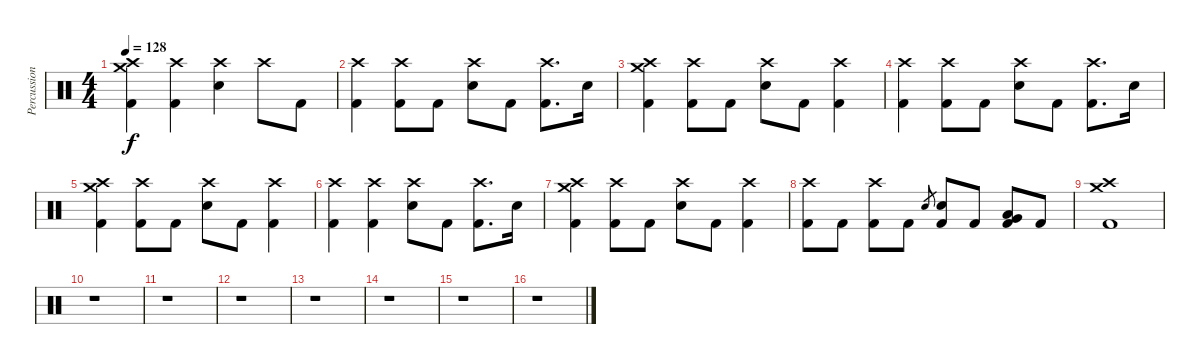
\track ("Percussion" "Percussion") {instrument percussion}
\staff {score}
\articulation defaults
\ts (4 4)
\tempo 128
\clef neutral
\ks c
("Crash high (hit)" "Crash medium (hit)" "Kick (hit) 2").4{dy f} ("Crash high (hit)" "Kick (hit) 2").4 ("Crash high (hit)" "Electric Snare (hit)").4 "Crash high (hit)".8 "Kick (hit) 2".8 |
("Crash high (hit)" "Kick (hit) 2").4 ("Crash high (hit)" "Kick (hit) 2").8 "Kick (hit) 2".8 ("Crash high (hit)" "Electric Snare (hit)").8 "Kick (hit) 2".8 ("Crash high (hit)" "Kick (hit) 2").8{d} "Electric Snare (hit)".16 |
("Crash high (hit)" "Crash medium (hit)" "Kick (hit) 2").4 ("Crash high (hit)" "Kick (hit) 2").8 "Kick (hit) 2".8 ("Crash high (hit)" "Electric Snare (hit)").8 "Kick (hit) 2".8 ("Crash high (hit)" "Kick (hit) 2").4 |
("Crash high (hit)" "Kick (hit) 2").4 ("Crash high (hit)" "Kick (hit) 2").8 "Kick (hit) 2".8 ("Crash high (hit)" "Electric Snare (hit)").8 "Kick (hit) 2".8 ("Crash high (hit)" "Kick (hit) 2").8{d} "Electric Snare (hit)".16 |
("Crash high (hit)" "Crash medium (hit)" "Kick (hit) 2").4 ("Crash high (hit)" "Kick (hit) 2").8 "Kick (hit) 2".8 ("Crash high (hit)" "Electric Snare (hit)").8 "Kick (hit) 2".8 ("Crash high (hit)" "Kick (hit) 2").4 |
("Crash high (hit)" "Kick (hit) 2").4 ("Crash high (hit)" "Kick (hit) 2").4 ("Crash high (hit)" "Electric Snare (hit)").8 "Kick (hit) 2".8 ("Crash high (hit)" "Kick (hit) 2").8{d} "Electric Snare (hit)".16 |
("Crash high (hit)" "Crash medium (hit)" "Kick (hit) 2").4 ("Crash high (hit)" "Kick (hit) 2").8 "Kick (hit) 2".8 ("Crash high (hit)" "Electric Snare (hit)").8 "Kick (hit) 2".8 ("Crash high (hit)" "Kick (hit) 2").4 |
("Crash high (hit)" "Kick (hit) 2").8 "Kick (hit) 2".8 ("Crash high (hit)" "Kick (hit) 2").8 "Kick (hit) 2".8 "Electric Snare (hit)".8{gr} ("Electric Snare (hit)" "Kick (hit) 2").8 "Kick (hit) 2".8 ("Low Tom (hit)" "Very Low Tom (hit)" "Kick (hit) 2").8 "Kick (hit) 2".8 |
("Crash high (hit)" "Crash medium (hit)" "Kick (hit) 2").1 |
r.1 |
r.1 |
r.1 |
r.1 |
r.1 |
r.1 |
r.1
